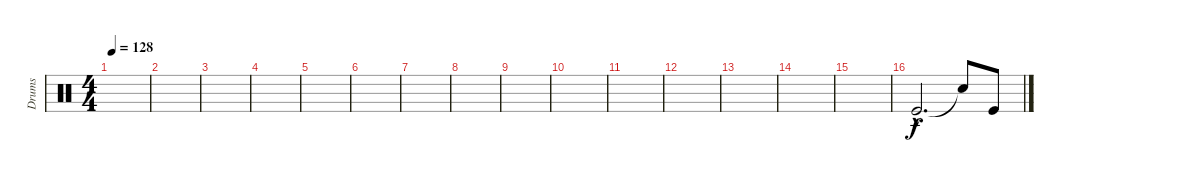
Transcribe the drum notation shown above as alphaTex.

\track ("Drums" "Drums") {instrument percussion}
\staff {score}
\articulation defaults
\ts (4 4)
\tempo 128
\clef neutral
\ks c
|
|
|
|
|
|
|
|
|
|
|
|
|
|
|
\section ("" "")
"Kick (hit)"{hac}.2{d} "Snare (hit)"{t}.8 "Kick (hit)".8
